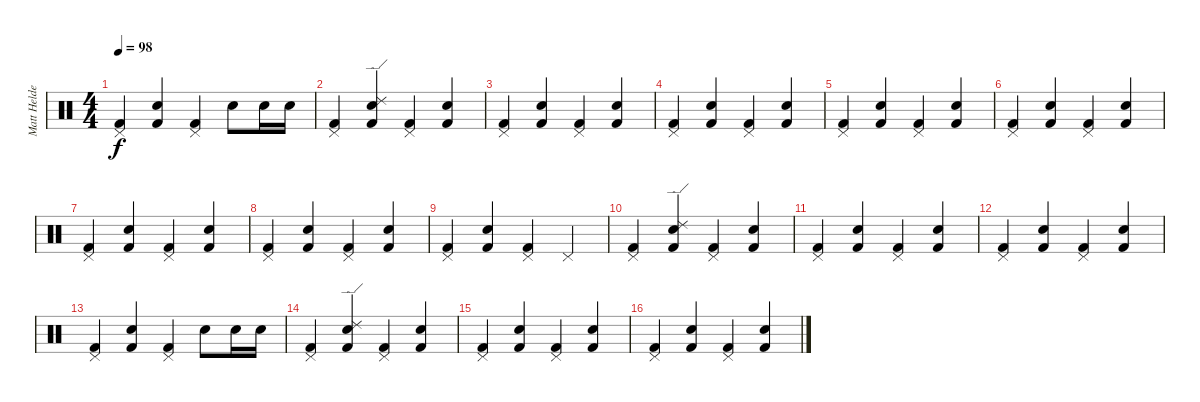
\track ("Matt Helders" "Matt Helde") {instrument percussion}
\staff {score}
\articulation defaults
\ts (4 4)
\tempo 98
\clef neutral
\ks c
("Kick (hit) 2" "Pedal Hi-Hat (hit)").4{dy f} ("Snare (hit) 2" "Kick (hit) 2").4 ("Kick (hit) 2" "Pedal Hi-Hat (hit)").4 "Snare (hit) 2".8 "Snare (hit) 2".16 "Snare (hit) 2".16 |
("Kick (hit) 2" "Pedal Hi-Hat (hit)").4 ("Snare (hit) 2" "Kick (hit) 2" "Ride (edge) 2").4 ("Kick (hit) 2" "Pedal Hi-Hat (hit)").4 ("Snare (hit) 2" "Kick (hit) 2").4 |
("Kick (hit) 2" "Pedal Hi-Hat (hit)").4 ("Snare (hit) 2" "Kick (hit) 2").4 ("Kick (hit) 2" "Pedal Hi-Hat (hit)").4 ("Snare (hit) 2" "Kick (hit) 2").4 |
("Kick (hit) 2" "Pedal Hi-Hat (hit)").4 ("Snare (hit) 2" "Kick (hit) 2").4 ("Kick (hit) 2" "Pedal Hi-Hat (hit)").4 ("Snare (hit) 2" "Kick (hit) 2").4 |
("Kick (hit) 2" "Pedal Hi-Hat (hit)").4 ("Snare (hit) 2" "Kick (hit) 2").4 ("Kick (hit) 2" "Pedal Hi-Hat (hit)").4 ("Snare (hit) 2" "Kick (hit) 2").4 |
("Kick (hit) 2" "Pedal Hi-Hat (hit)").4 ("Snare (hit) 2" "Kick (hit) 2").4 ("Kick (hit) 2" "Pedal Hi-Hat (hit)").4 ("Snare (hit) 2" "Kick (hit) 2").4 |
("Kick (hit) 2" "Pedal Hi-Hat (hit)").4 ("Snare (hit) 2" "Kick (hit) 2").4 ("Kick (hit) 2" "Pedal Hi-Hat (hit)").4 ("Snare (hit) 2" "Kick (hit) 2").4 |
("Kick (hit) 2" "Pedal Hi-Hat (hit)").4 ("Snare (hit) 2" "Kick (hit) 2").4 ("Kick (hit) 2" "Pedal Hi-Hat (hit)").4 ("Snare (hit) 2" "Kick (hit) 2").4 |
("Kick (hit) 2" "Pedal Hi-Hat (hit)").4 ("Snare (hit) 2" "Kick (hit) 2").4 ("Kick (hit) 2" "Pedal Hi-Hat (hit)").4 "Pedal Hi-Hat (hit)".4 |
("Kick (hit) 2" "Pedal Hi-Hat (hit)").4 ("Snare (hit) 2" "Kick (hit) 2" "Ride (edge) 2").4 ("Kick (hit) 2" "Pedal Hi-Hat (hit)").4 ("Snare (hit) 2" "Kick (hit) 2").4 |
("Kick (hit) 2" "Pedal Hi-Hat (hit)").4 ("Snare (hit) 2" "Kick (hit) 2").4 ("Kick (hit) 2" "Pedal Hi-Hat (hit)").4 ("Snare (hit) 2" "Kick (hit) 2").4 |
("Kick (hit) 2" "Pedal Hi-Hat (hit)").4 ("Snare (hit) 2" "Kick (hit) 2").4 ("Kick (hit) 2" "Pedal Hi-Hat (hit)").4 ("Snare (hit) 2" "Kick (hit) 2").4 |
("Kick (hit) 2" "Pedal Hi-Hat (hit)").4 ("Snare (hit) 2" "Kick (hit) 2").4 ("Kick (hit) 2" "Pedal Hi-Hat (hit)").4 "Snare (hit) 2".8 "Snare (hit) 2".16 "Snare (hit) 2".16 |
("Kick (hit) 2" "Pedal Hi-Hat (hit)").4 ("Snare (hit) 2" "Kick (hit) 2" "Ride (edge) 2").4 ("Kick (hit) 2" "Pedal Hi-Hat (hit)").4 ("Snare (hit) 2" "Kick (hit) 2").4 |
("Kick (hit) 2" "Pedal Hi-Hat (hit)").4 ("Snare (hit) 2" "Kick (hit) 2").4 ("Kick (hit) 2" "Pedal Hi-Hat (hit)").4 ("Snare (hit) 2" "Kick (hit) 2").4 |
("Kick (hit) 2" "Pedal Hi-Hat (hit)").4 ("Snare (hit) 2" "Kick (hit) 2").4 ("Kick (hit) 2" "Pedal Hi-Hat (hit)").4 ("Snare (hit) 2" "Kick (hit) 2").4
